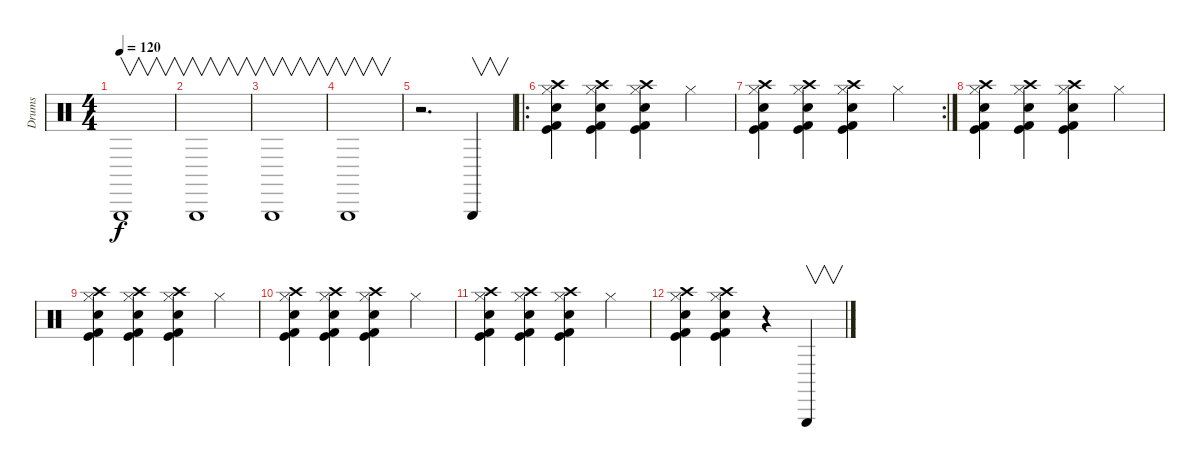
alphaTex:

\track ("Drums" "Drums") {instrument percussion}
\staff {score}
\articulation defaults
\ts (4 4)
\tempo 120
\clef neutral
\ks c "Triangle (hit)".1{v dy f}
|
"Triangle (hit)".1{v} |
"Triangle (hit)".1{v} |
"Triangle (hit)".1{v} |
r.2{d} "Triangle (hit)".4{v} |
\ro
("Hi-Hat (closed)" "Kick (hit)" "Kick (hit) 2" "Electric Snare (hit)" "Crash high (hit)").4 ("Hi-Hat (closed)" "Kick (hit)" "Kick (hit) 2" "Electric Snare (hit)" "Crash high (hit)").4 ("Hi-Hat (closed)" "Kick (hit)" "Kick (hit) 2" "Electric Snare (hit)" "Crash high (hit)").4 "Hi-Hat (closed)".4 |
\rc 2
("Hi-Hat (closed)" "Kick (hit)" "Kick (hit) 2" "Electric Snare (hit)" "Crash high (hit)").4 ("Hi-Hat (closed)" "Kick (hit)" "Kick (hit) 2" "Electric Snare (hit)" "Crash high (hit)").4 ("Hi-Hat (closed)" "Kick (hit)" "Kick (hit) 2" "Electric Snare (hit)" "Crash high (hit)").4 "Hi-Hat (closed)".4 |
("Hi-Hat (closed)" "Kick (hit)" "Kick (hit) 2" "Electric Snare (hit)" "Crash high (hit)").4 ("Hi-Hat (closed)" "Kick (hit)" "Kick (hit) 2" "Electric Snare (hit)" "Crash high (hit)").4 ("Hi-Hat (closed)" "Kick (hit)" "Kick (hit) 2" "Electric Snare (hit)" "Crash high (hit)").4 "Hi-Hat (closed)".4 |
("Hi-Hat (closed)" "Kick (hit)" "Kick (hit) 2" "Electric Snare (hit)" "Crash high (hit)").4 ("Hi-Hat (closed)" "Kick (hit)" "Kick (hit) 2" "Electric Snare (hit)" "Crash high (hit)").4 ("Hi-Hat (closed)" "Kick (hit)" "Kick (hit) 2" "Electric Snare (hit)" "Crash high (hit)").4 "Hi-Hat (closed)".4 |
("Hi-Hat (closed)" "Kick (hit)" "Kick (hit) 2" "Electric Snare (hit)" "Crash high (hit)").4 ("Hi-Hat (closed)" "Kick (hit)" "Kick (hit) 2" "Electric Snare (hit)" "Crash high (hit)").4 ("Hi-Hat (closed)" "Kick (hit)" "Kick (hit) 2" "Electric Snare (hit)" "Crash high (hit)").4 "Hi-Hat (closed)".4 |
("Hi-Hat (closed)" "Kick (hit)" "Kick (hit) 2" "Electric Snare (hit)" "Crash high (hit)").4 ("Hi-Hat (closed)" "Kick (hit)" "Kick (hit) 2" "Electric Snare (hit)" "Crash high (hit)").4 ("Hi-Hat (closed)" "Kick (hit)" "Kick (hit) 2" "Electric Snare (hit)" "Crash high (hit)").4 "Hi-Hat (closed)".4 |
("Hi-Hat (closed)" "Kick (hit)" "Kick (hit) 2" "Electric Snare (hit)" "Crash high (hit)").4 ("Hi-Hat (closed)" "Kick (hit)" "Kick (hit) 2" "Electric Snare (hit)" "Crash high (hit)").4 r.4 "Triangle (hit)".4{v}
